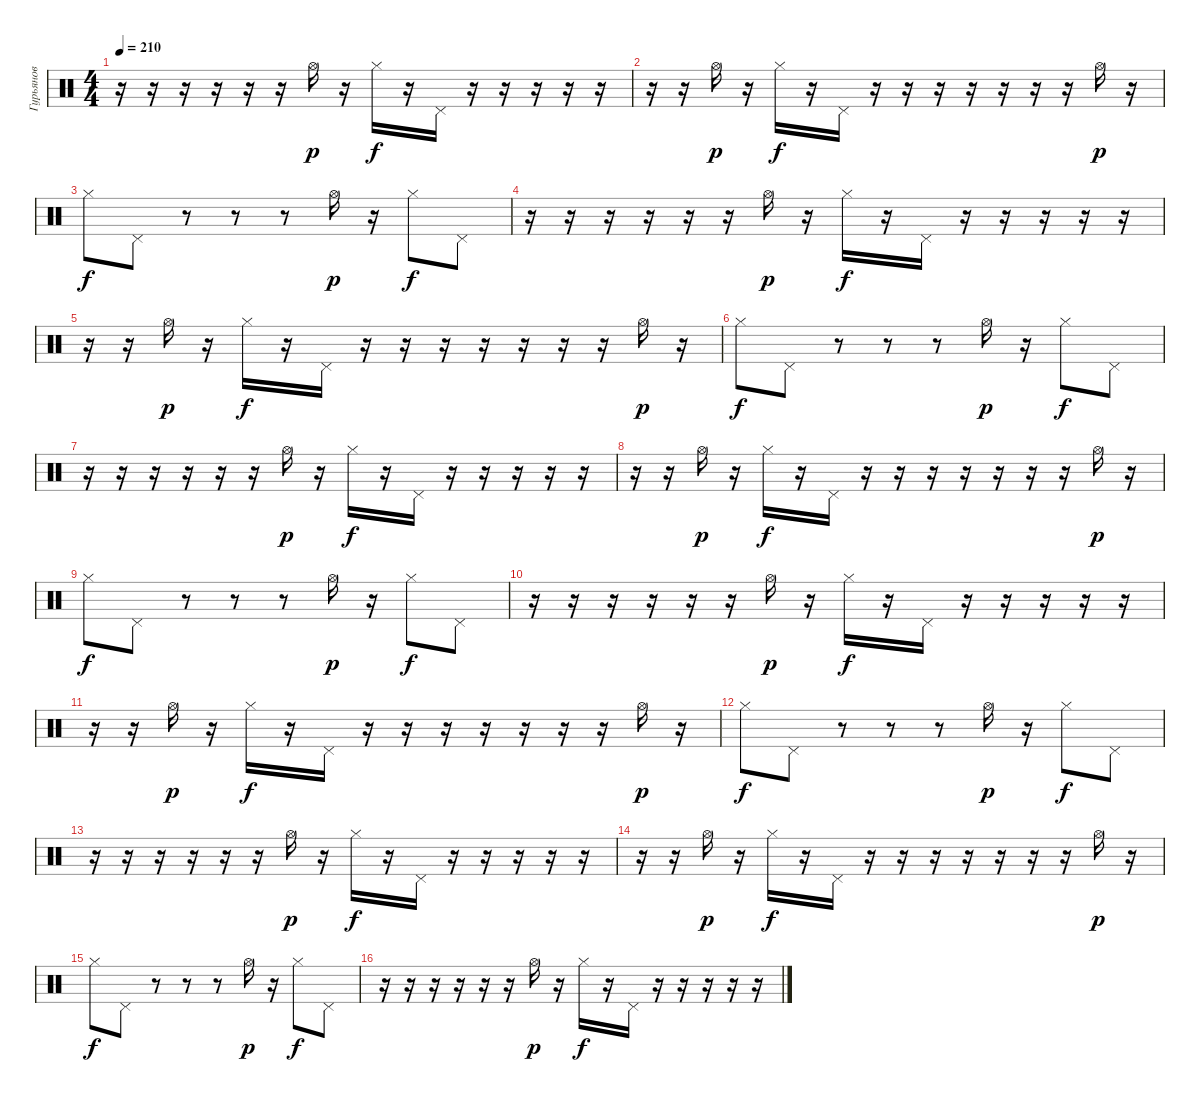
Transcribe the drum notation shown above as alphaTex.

\track ("Гурьянов" "Гурьянов") {instrument percussion}
\staff {score}
\articulation defaults
\ts (4 4)
\tempo 210
\clef neutral
\ks c
r.16{dy p} r.16 r.16 r.16 r.16 r.16 "Hi-Hat (open)".16 r.16 "Hi-Hat (closed)".16{dy f} r.16 "Pedal Hi-Hat (hit)".16 r.16 r.16 r.16 r.16 r.16 |
r.16 r.16 "Hi-Hat (open)".16{dy p} r.16 "Hi-Hat (closed)".16{dy f} r.16 "Pedal Hi-Hat (hit)".16 r.16 r.16 r.16 r.16 r.16 r.16 r.16 "Hi-Hat (open)".16{dy p} r.16 |
"Hi-Hat (closed)".8{dy f} "Pedal Hi-Hat (hit)".8 r.8 r.8 r.8 "Hi-Hat (open)".16{dy p} r.16 "Hi-Hat (closed)".8{dy f} "Pedal Hi-Hat (hit)".8 |
r.16 r.16 r.16 r.16 r.16 r.16 "Hi-Hat (open)".16{dy p} r.16 "Hi-Hat (closed)".16{dy f} r.16 "Pedal Hi-Hat (hit)".16 r.16 r.16 r.16 r.16 r.16 |
r.16 r.16 "Hi-Hat (open)".16{dy p} r.16 "Hi-Hat (closed)".16{dy f} r.16 "Pedal Hi-Hat (hit)".16 r.16 r.16 r.16 r.16 r.16 r.16 r.16 "Hi-Hat (open)".16{dy p} r.16 |
"Hi-Hat (closed)".8{dy f} "Pedal Hi-Hat (hit)".8 r.8 r.8 r.8 "Hi-Hat (open)".16{dy p} r.16 "Hi-Hat (closed)".8{dy f} "Pedal Hi-Hat (hit)".8 |
r.16 r.16 r.16 r.16 r.16 r.16 "Hi-Hat (open)".16{dy p} r.16 "Hi-Hat (closed)".16{dy f} r.16 "Pedal Hi-Hat (hit)".16 r.16 r.16 r.16 r.16 r.16 |
r.16 r.16 "Hi-Hat (open)".16{dy p} r.16 "Hi-Hat (closed)".16{dy f} r.16 "Pedal Hi-Hat (hit)".16 r.16 r.16 r.16 r.16 r.16 r.16 r.16 "Hi-Hat (open)".16{dy p} r.16 |
"Hi-Hat (closed)".8{dy f} "Pedal Hi-Hat (hit)".8 r.8 r.8 r.8 "Hi-Hat (open)".16{dy p} r.16 "Hi-Hat (closed)".8{dy f} "Pedal Hi-Hat (hit)".8 |
r.16 r.16 r.16 r.16 r.16 r.16 "Hi-Hat (open)".16{dy p} r.16 "Hi-Hat (closed)".16{dy f} r.16 "Pedal Hi-Hat (hit)".16 r.16 r.16 r.16 r.16 r.16 |
r.16 r.16 "Hi-Hat (open)".16{dy p} r.16 "Hi-Hat (closed)".16{dy f} r.16 "Pedal Hi-Hat (hit)".16 r.16 r.16 r.16 r.16 r.16 r.16 r.16 "Hi-Hat (open)".16{dy p} r.16 |
"Hi-Hat (closed)".8{dy f} "Pedal Hi-Hat (hit)".8 r.8 r.8 r.8 "Hi-Hat (open)".16{dy p} r.16 "Hi-Hat (closed)".8{dy f} "Pedal Hi-Hat (hit)".8 |
r.16 r.16 r.16 r.16 r.16 r.16 "Hi-Hat (open)".16{dy p} r.16 "Hi-Hat (closed)".16{dy f} r.16 "Pedal Hi-Hat (hit)".16 r.16 r.16 r.16 r.16 r.16 |
r.16 r.16 "Hi-Hat (open)".16{dy p} r.16 "Hi-Hat (closed)".16{dy f} r.16 "Pedal Hi-Hat (hit)".16 r.16 r.16 r.16 r.16 r.16 r.16 r.16 "Hi-Hat (open)".16{dy p} r.16 |
"Hi-Hat (closed)".8{dy f} "Pedal Hi-Hat (hit)".8 r.8 r.8 r.8 "Hi-Hat (open)".16{dy p} r.16 "Hi-Hat (closed)".8{dy f} "Pedal Hi-Hat (hit)".8 |
r.16 r.16 r.16 r.16 r.16 r.16 "Hi-Hat (open)".16{dy p} r.16 "Hi-Hat (closed)".16{dy f} r.16 "Pedal Hi-Hat (hit)".16 r.16 r.16 r.16 r.16 r.16
